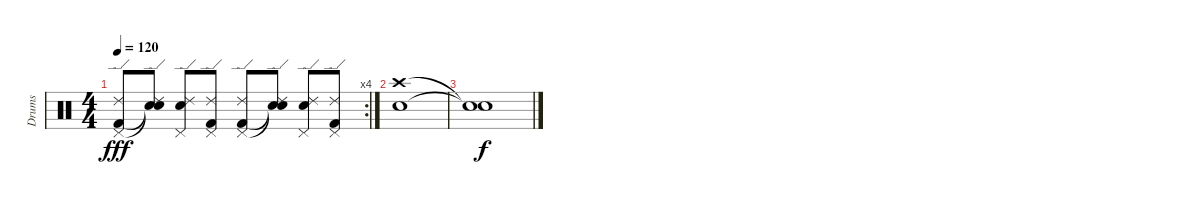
\track ("Drums" "Drums") {instrument percussion}
\staff {score}
\articulation defaults
\rc 4
\ts (4 4)
\tempo 120
\clef neutral
\ks c
("Kick (hit) 2" "Pedal Hi-Hat (hit)" "Ride (edge) 2").8{dy fff} ("Snare (hit) 2"{t} "Snare (hit)"{t} "Ride (edge) 2").8 ("Snare (hit) 2" "Pedal Hi-Hat (hit)" "Ride (edge) 2").8 ("Kick (hit) 2" "Pedal Hi-Hat (hit)" "Ride (edge) 2").8 ("Kick (hit) 2" "Pedal Hi-Hat (hit)" "Ride (edge) 2").8 ("Snare (hit) 2"{t} "Snare (hit)"{t} "Ride (edge) 2").8 ("Snare (hit) 2" "Pedal Hi-Hat (hit)" "Ride (edge) 2").8 ("Kick (hit) 2" "Pedal Hi-Hat (hit)" "Ride (edge) 2").8 |
("Snare (hit) 2" "Crash high (hit)").1 |
("Snare (hit)"{t} "Snare (hit)"{t}).1{dy f}
